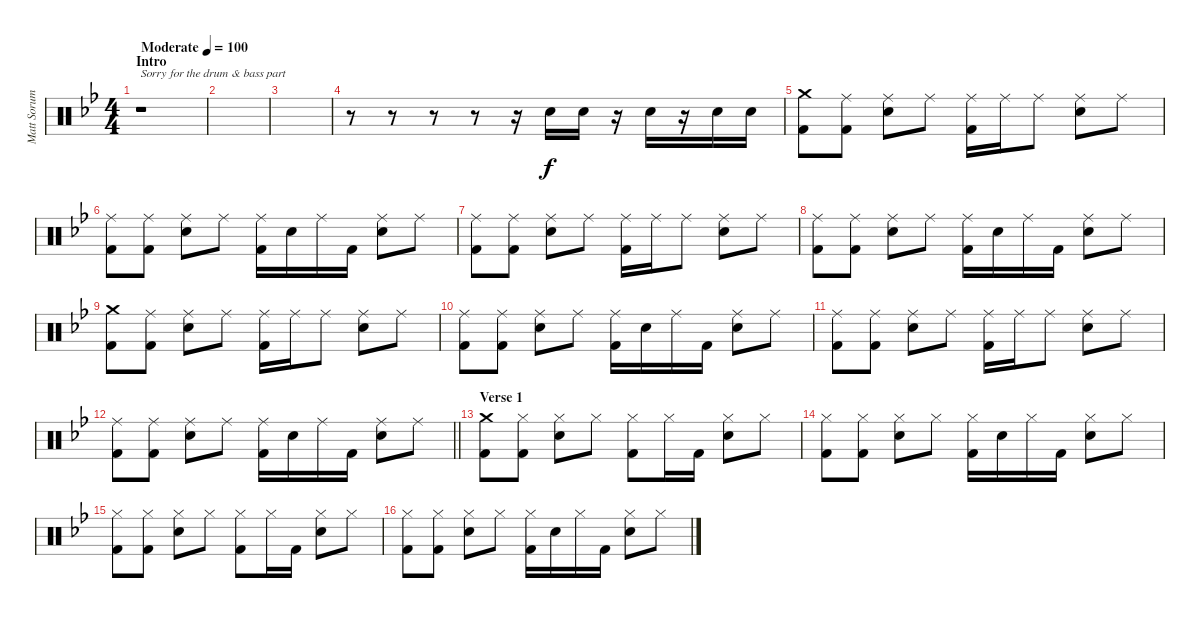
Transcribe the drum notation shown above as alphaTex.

\track ("Matt Sorum" "Matt Sorum") {instrument percussion}
\staff {score}
\articulation defaults
\ts (4 4)
\section ("" "Intro")
\tempo (100 "Moderate")
\clef neutral
\ks bb
r.1{txt "Sorry for the drum & bass part" dy f} |
|
|
r.8 r.8 r.8 r.8 r.16 "Electric Snare (hit)".16 "Electric Snare (hit)".16 r.16 "Electric Snare (hit)".16 r.16 "Electric Snare (hit)".16 "Electric Snare (hit)".16 |
("Crash medium (hit)" "Kick (hit) 2").8 ("Ride (middle)" "Kick (hit) 2").8 ("Ride (middle)" "Electric Snare (hit)").8 "Ride (middle)".8 ("Ride (middle)" "Kick (hit) 2").16 "Ride (middle)".16 "Ride (middle)".8 ("Ride (middle)" "Electric Snare (hit)").8 "Ride (middle)".8 |
("Ride (middle)" "Kick (hit) 2").8 ("Ride (middle)" "Kick (hit) 2").8 ("Ride (middle)" "Electric Snare (hit)").8 "Ride (middle)".8 ("Ride (middle)" "Kick (hit) 2").16 "Electric Snare (hit)".16 "Ride (middle)".16 "Kick (hit) 2".16 ("Ride (middle)" "Electric Snare (hit)").8 "Ride (middle)".8 |
("Ride (middle)" "Kick (hit) 2").8 ("Ride (middle)" "Kick (hit) 2").8 ("Ride (middle)" "Electric Snare (hit)").8 "Ride (middle)".8 ("Ride (middle)" "Kick (hit) 2").16 "Ride (middle)".16 "Ride (middle)".8 ("Ride (middle)" "Electric Snare (hit)").8 "Ride (middle)".8 |
("Ride (middle)" "Kick (hit) 2").8 ("Ride (middle)" "Kick (hit) 2").8 ("Ride (middle)" "Electric Snare (hit)").8 "Ride (middle)".8 ("Ride (middle)" "Kick (hit) 2").16 "Electric Snare (hit)".16 "Ride (middle)".16 "Kick (hit) 2".16 ("Ride (middle)" "Electric Snare (hit)").8 "Ride (middle)".8 |
("Crash medium (hit)" "Kick (hit) 2").8 ("Ride (middle)" "Kick (hit) 2").8 ("Ride (middle)" "Electric Snare (hit)").8 "Ride (middle)".8 ("Ride (middle)" "Kick (hit) 2").16 "Ride (middle)".16 "Ride (middle)".8 ("Ride (middle)" "Electric Snare (hit)").8 "Ride (middle)".8 |
("Ride (middle)" "Kick (hit) 2").8 ("Ride (middle)" "Kick (hit) 2").8 ("Ride (middle)" "Electric Snare (hit)").8 "Ride (middle)".8 ("Ride (middle)" "Kick (hit) 2").16 "Electric Snare (hit)".16 "Ride (middle)".16 "Kick (hit) 2".16 ("Ride (middle)" "Electric Snare (hit)").8 "Ride (middle)".8 |
("Ride (middle)" "Kick (hit) 2").8 ("Ride (middle)" "Kick (hit) 2").8 ("Ride (middle)" "Electric Snare (hit)").8 "Ride (middle)".8 ("Ride (middle)" "Kick (hit) 2").16 "Ride (middle)".16 "Ride (middle)".8 ("Ride (middle)" "Electric Snare (hit)").8 "Ride (middle)".8 |
\barLineRight lightlight
("Ride (middle)" "Kick (hit) 2").8 ("Ride (middle)" "Kick (hit) 2").8 ("Ride (middle)" "Electric Snare (hit)").8 "Ride (middle)".8 ("Ride (middle)" "Kick (hit) 2").16 "Electric Snare (hit)".16 "Ride (middle)".16 "Kick (hit) 2".16 ("Ride (middle)" "Electric Snare (hit)").8 "Ride (middle)".8 |
\section ("" "Verse 1")
("Crash medium (hit)" "Kick (hit) 2").8 ("Hi-Hat (closed)" "Kick (hit) 2").8 ("Hi-Hat (closed)" "Electric Snare (hit)").8 "Hi-Hat (closed)".8 ("Hi-Hat (closed)" "Kick (hit) 2").8 "Hi-Hat (closed)".16 "Kick (hit) 2".16 ("Hi-Hat (closed)" "Electric Snare (hit)").8 "Hi-Hat (closed)".8 |
("Hi-Hat (closed)" "Kick (hit) 2").8 ("Hi-Hat (closed)" "Kick (hit) 2").8 ("Hi-Hat (closed)" "Electric Snare (hit)").8 "Hi-Hat (closed)".8 ("Hi-Hat (closed)" "Kick (hit) 2").16 "Electric Snare (hit)".16 "Hi-Hat (closed)".16 "Kick (hit) 2".16 ("Hi-Hat (closed)" "Electric Snare (hit)").8 "Hi-Hat (closed)".8 |
("Hi-Hat (closed)" "Kick (hit) 2").8 ("Hi-Hat (closed)" "Kick (hit) 2").8 ("Hi-Hat (closed)" "Electric Snare (hit)").8 "Hi-Hat (closed)".8 ("Hi-Hat (closed)" "Kick (hit) 2").8 "Hi-Hat (closed)".16 "Kick (hit) 2".16 ("Hi-Hat (closed)" "Electric Snare (hit)").8 "Hi-Hat (closed)".8 |
("Hi-Hat (closed)" "Kick (hit) 2").8 ("Hi-Hat (closed)" "Kick (hit) 2").8 ("Hi-Hat (closed)" "Electric Snare (hit)").8 "Hi-Hat (closed)".8 ("Hi-Hat (closed)" "Kick (hit) 2").16 "Electric Snare (hit)".16 "Hi-Hat (closed)".16 "Kick (hit) 2".16 ("Hi-Hat (closed)" "Electric Snare (hit)").8 "Hi-Hat (closed)".8
